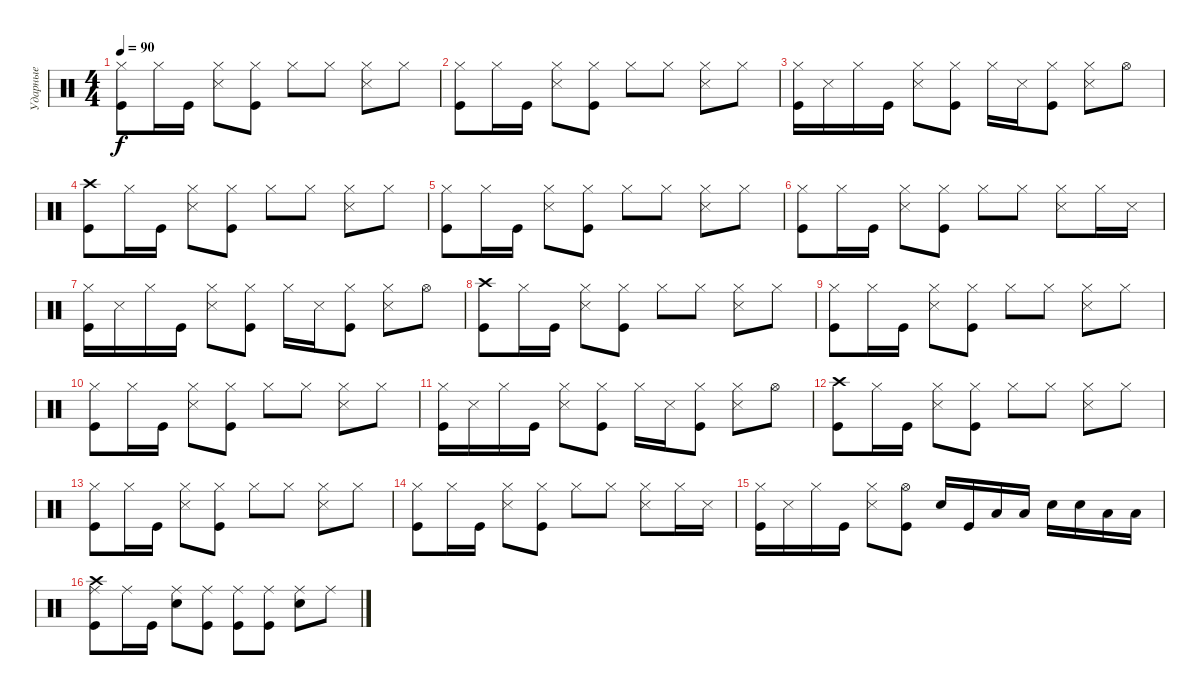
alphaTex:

\track ("Ударные" "Ударные") {instrument percussion}
\staff {score}
\articulation defaults
\ts (4 4)
\tempo 90
\clef neutral
\ks c
("Hi-Hat (closed)" "Kick (hit)").8{dy f} "Hi-Hat (closed)".16 "Kick (hit)".16 ("Hi-Hat (closed)" "Snare (side stick) 3").8 ("Hi-Hat (closed)" "Kick (hit)").8 "Hi-Hat (closed)".8 "Hi-Hat (closed)".8 ("Hi-Hat (closed)" "Snare (side stick) 3").8 "Hi-Hat (closed)".8 |
("Hi-Hat (closed)" "Kick (hit)").8 "Hi-Hat (closed)".16 "Kick (hit)".16 ("Hi-Hat (closed)" "Snare (side stick) 3").8 ("Hi-Hat (closed)" "Kick (hit)").8 "Hi-Hat (closed)".8 "Hi-Hat (closed)".8 ("Hi-Hat (closed)" "Snare (side stick) 3").8 "Hi-Hat (closed)".8 |
("Hi-Hat (closed)" "Kick (hit)").16 "Snare (side stick) 3".16 "Hi-Hat (closed)".16 "Kick (hit)".16 ("Hi-Hat (closed)" "Snare (side stick) 3").8 ("Hi-Hat (closed)" "Kick (hit)").8 "Hi-Hat (closed)".16 "Snare (side stick) 3".16 ("Hi-Hat (closed)" "Kick (hit)").8 ("Hi-Hat (closed)" "Snare (side stick) 3").8 "Hi-Hat (open)".8 |
("Crash high (hit)" "Kick (hit)").8 "Hi-Hat (closed)".16 "Kick (hit)".16 ("Hi-Hat (closed)" "Snare (side stick) 3").8 ("Hi-Hat (closed)" "Kick (hit)").8 "Hi-Hat (closed)".8 "Hi-Hat (closed)".8 ("Hi-Hat (closed)" "Snare (side stick) 3").8 "Hi-Hat (closed)".8 |
("Hi-Hat (closed)" "Kick (hit)").8 "Hi-Hat (closed)".16 "Kick (hit)".16 ("Hi-Hat (closed)" "Snare (side stick) 3").8 ("Hi-Hat (closed)" "Kick (hit)").8 "Hi-Hat (closed)".8 "Hi-Hat (closed)".8 ("Hi-Hat (closed)" "Snare (side stick) 3").8 "Hi-Hat (closed)".8 |
("Hi-Hat (closed)" "Kick (hit)").8 "Hi-Hat (closed)".16 "Kick (hit)".16 ("Hi-Hat (closed)" "Snare (side stick) 3").8 ("Hi-Hat (closed)" "Kick (hit)").8 "Hi-Hat (closed)".8 "Hi-Hat (closed)".8 ("Hi-Hat (closed)" "Snare (side stick) 3").8 "Hi-Hat (closed)".16 "Snare (side stick) 3".16 |
("Hi-Hat (closed)" "Kick (hit)").16 "Snare (side stick) 3".16 "Hi-Hat (closed)".16 "Kick (hit)".16 ("Hi-Hat (closed)" "Snare (side stick) 3").8 ("Hi-Hat (closed)" "Kick (hit)").8 "Hi-Hat (closed)".16 "Snare (side stick) 3".16 ("Hi-Hat (closed)" "Kick (hit)").8 ("Hi-Hat (closed)" "Snare (side stick) 3").8 "Hi-Hat (open)".8 |
("Crash high (hit)" "Kick (hit)").8 "Hi-Hat (closed)".16 "Kick (hit)".16 ("Hi-Hat (closed)" "Snare (side stick) 3").8 ("Hi-Hat (closed)" "Kick (hit)").8 "Hi-Hat (closed)".8 "Hi-Hat (closed)".8 ("Hi-Hat (closed)" "Snare (side stick) 3").8 "Hi-Hat (closed)".8 |
("Hi-Hat (closed)" "Kick (hit)").8 "Hi-Hat (closed)".16 "Kick (hit)".16 ("Hi-Hat (closed)" "Snare (side stick) 3").8 ("Hi-Hat (closed)" "Kick (hit)").8 "Hi-Hat (closed)".8 "Hi-Hat (closed)".8 ("Hi-Hat (closed)" "Snare (side stick) 3").8 "Hi-Hat (closed)".8 |
("Hi-Hat (closed)" "Kick (hit)").8 "Hi-Hat (closed)".16 "Kick (hit)".16 ("Hi-Hat (closed)" "Snare (side stick) 3").8 ("Hi-Hat (closed)" "Kick (hit)").8 "Hi-Hat (closed)".8 "Hi-Hat (closed)".8 ("Hi-Hat (closed)" "Snare (side stick) 3").8 "Hi-Hat (closed)".8 |
("Hi-Hat (closed)" "Kick (hit)").16 "Snare (side stick) 3".16 "Hi-Hat (closed)".16 "Kick (hit)".16 ("Hi-Hat (closed)" "Snare (side stick) 3").8 ("Hi-Hat (closed)" "Kick (hit)").8 "Hi-Hat (closed)".16 "Snare (side stick) 3".16 ("Hi-Hat (closed)" "Kick (hit)").8 ("Hi-Hat (closed)" "Snare (side stick) 3").8 "Hi-Hat (open)".8 |
("Crash high (hit)" "Kick (hit)").8 "Hi-Hat (closed)".16 "Kick (hit)".16 ("Hi-Hat (closed)" "Snare (side stick) 3").8 ("Hi-Hat (closed)" "Kick (hit)").8 "Hi-Hat (closed)".8 "Hi-Hat (closed)".8 ("Hi-Hat (closed)" "Snare (side stick) 3").8 "Hi-Hat (closed)".8 |
("Hi-Hat (closed)" "Kick (hit)").8 "Hi-Hat (closed)".16 "Kick (hit)".16 ("Hi-Hat (closed)" "Snare (side stick) 3").8 ("Hi-Hat (closed)" "Kick (hit)").8 "Hi-Hat (closed)".8 "Hi-Hat (closed)".8 ("Hi-Hat (closed)" "Snare (side stick) 3").8 "Hi-Hat (closed)".8 |
("Hi-Hat (closed)" "Kick (hit)").8 "Hi-Hat (closed)".16 "Kick (hit)".16 ("Hi-Hat (closed)" "Snare (side stick) 3").8 ("Hi-Hat (closed)" "Kick (hit)").8 "Hi-Hat (closed)".8 "Hi-Hat (closed)".8 ("Hi-Hat (closed)" "Snare (side stick) 3").8 "Hi-Hat (closed)".16 "Snare (side stick) 3".16 |
("Hi-Hat (closed)" "Kick (hit)").16 "Snare (side stick) 3".16 "Hi-Hat (closed)".16 "Kick (hit)".16 ("Hi-Hat (closed)" "Snare (side stick) 3").8 ("Hi-Hat (open)" "Kick (hit)").8 "Electric Snare (hit)".16 "Kick (hit)".16 "Low Tom (hit)".16 "Low Floor Tom (hit)".16 "Electric Snare (hit)".16 "Electric Snare (hit)".16 "Low Tom (hit)".16 "Low Floor Tom (hit)".16 |
("Crash high (hit)" "Ride (middle)" "Kick (hit)").8 "Ride (middle)".16 "Kick (hit)".16 ("Ride (middle)" "Electric Snare (hit)").8 ("Ride (middle)" "Kick (hit)").8 ("Ride (middle)" "Kick (hit)").8 ("Ride (middle)" "Kick (hit)").8 ("Ride (middle)" "Electric Snare (hit)").8 "Ride (middle)".8
